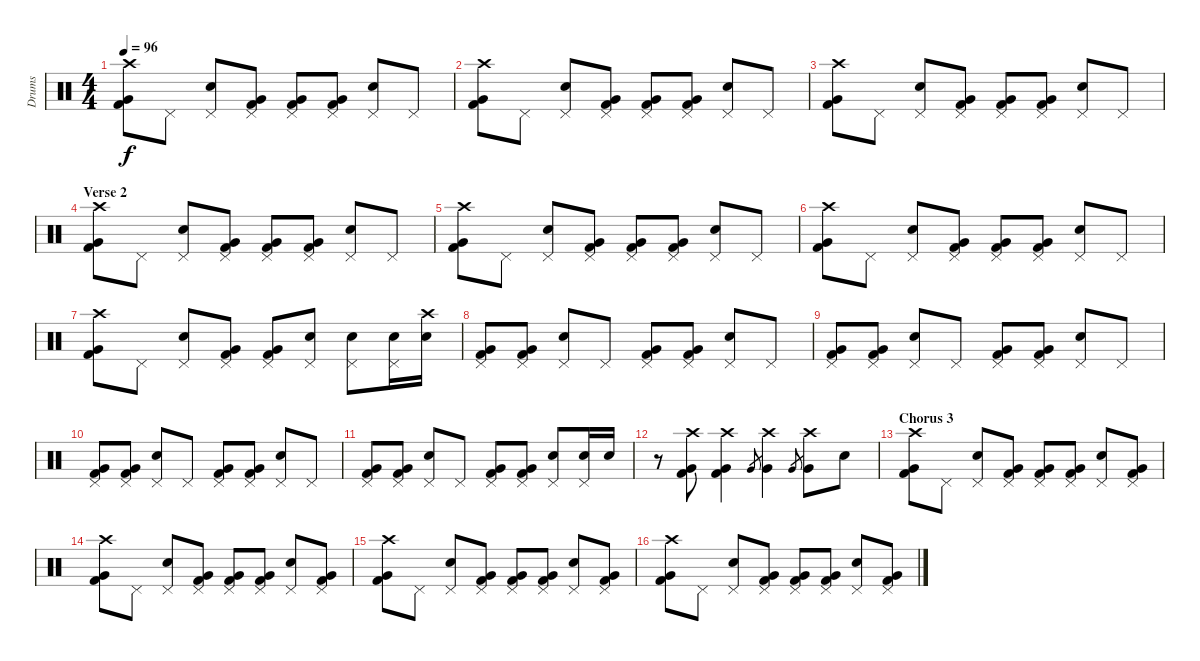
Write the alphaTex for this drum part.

\track ("Drums" "Drums") {instrument percussion}
\staff {score}
\articulation defaults
\ts (4 4)
\tempo 96
\clef neutral
\ks c
("Crash high (hit)" "Very Low Tom (hit)" "Kick (hit) 2").8{dy f} "Pedal Hi-Hat (hit)".8 ("Pedal Hi-Hat (hit)" "Electric Snare (hit)").8 ("Pedal Hi-Hat (hit)" "Very Low Tom (hit)" "Kick (hit) 2").8 ("Pedal Hi-Hat (hit)" "Very Low Tom (hit)" "Kick (hit) 2").8 ("Pedal Hi-Hat (hit)" "Very Low Tom (hit)" "Kick (hit) 2").8 ("Pedal Hi-Hat (hit)" "Electric Snare (hit)").8 "Pedal Hi-Hat (hit)".8 |
("Crash high (hit)" "Very Low Tom (hit)" "Kick (hit) 2").8 "Pedal Hi-Hat (hit)".8 ("Pedal Hi-Hat (hit)" "Electric Snare (hit)").8 ("Pedal Hi-Hat (hit)" "Very Low Tom (hit)" "Kick (hit) 2").8 ("Pedal Hi-Hat (hit)" "Very Low Tom (hit)" "Kick (hit) 2").8 ("Pedal Hi-Hat (hit)" "Very Low Tom (hit)" "Kick (hit) 2").8 ("Pedal Hi-Hat (hit)" "Electric Snare (hit)").8 "Pedal Hi-Hat (hit)".8 |
("Crash high (hit)" "Very Low Tom (hit)" "Kick (hit) 2").8 "Pedal Hi-Hat (hit)".8 ("Pedal Hi-Hat (hit)" "Electric Snare (hit)").8 ("Pedal Hi-Hat (hit)" "Very Low Tom (hit)" "Kick (hit) 2").8 ("Pedal Hi-Hat (hit)" "Very Low Tom (hit)" "Kick (hit) 2").8 ("Pedal Hi-Hat (hit)" "Very Low Tom (hit)" "Kick (hit) 2").8 ("Pedal Hi-Hat (hit)" "Electric Snare (hit)").8 "Pedal Hi-Hat (hit)".8 |
\section ("" "Verse 2")
("Crash high (hit)" "Very Low Tom (hit)" "Kick (hit) 2").8 "Pedal Hi-Hat (hit)".8 ("Pedal Hi-Hat (hit)" "Electric Snare (hit)").8 ("Pedal Hi-Hat (hit)" "Very Low Tom (hit)" "Kick (hit) 2").8 ("Pedal Hi-Hat (hit)" "Very Low Tom (hit)" "Kick (hit) 2").8 ("Pedal Hi-Hat (hit)" "Very Low Tom (hit)" "Kick (hit) 2").8 ("Pedal Hi-Hat (hit)" "Electric Snare (hit)").8 "Pedal Hi-Hat (hit)".8 |
("Crash high (hit)" "Very Low Tom (hit)" "Kick (hit) 2").8 "Pedal Hi-Hat (hit)".8 ("Pedal Hi-Hat (hit)" "Electric Snare (hit)").8 ("Pedal Hi-Hat (hit)" "Very Low Tom (hit)" "Kick (hit) 2").8 ("Pedal Hi-Hat (hit)" "Very Low Tom (hit)" "Kick (hit) 2").8 ("Pedal Hi-Hat (hit)" "Very Low Tom (hit)" "Kick (hit) 2").8 ("Pedal Hi-Hat (hit)" "Electric Snare (hit)").8 "Pedal Hi-Hat (hit)".8 |
("Crash high (hit)" "Very Low Tom (hit)" "Kick (hit) 2").8 "Pedal Hi-Hat (hit)".8 ("Pedal Hi-Hat (hit)" "Electric Snare (hit)").8 ("Pedal Hi-Hat (hit)" "Very Low Tom (hit)" "Kick (hit) 2").8 ("Pedal Hi-Hat (hit)" "Very Low Tom (hit)" "Kick (hit) 2").8 ("Pedal Hi-Hat (hit)" "Very Low Tom (hit)" "Kick (hit) 2").8 ("Pedal Hi-Hat (hit)" "Electric Snare (hit)").8 "Pedal Hi-Hat (hit)".8 |
("Crash high (hit)" "Very Low Tom (hit)" "Kick (hit) 2").8 "Pedal Hi-Hat (hit)".8 ("Pedal Hi-Hat (hit)" "Electric Snare (hit)").8 ("Pedal Hi-Hat (hit)" "Very Low Tom (hit)" "Kick (hit) 2").8 ("Pedal Hi-Hat (hit)" "Very Low Tom (hit)" "Kick (hit) 2").8 ("Pedal Hi-Hat (hit)" "Electric Snare (hit)").8 ("Pedal Hi-Hat (hit)" "Electric Snare (hit)").8 ("Pedal Hi-Hat (hit)" "Electric Snare (hit)").16 ("Crash high (hit)" "Electric Snare (hit)").16 |
("Pedal Hi-Hat (hit)" "Very Low Tom (hit)" "Kick (hit) 2").8 ("Pedal Hi-Hat (hit)" "Very Low Tom (hit)" "Kick (hit) 2").8 ("Pedal Hi-Hat (hit)" "Electric Snare (hit)").8 "Pedal Hi-Hat (hit)".8 ("Pedal Hi-Hat (hit)" "Very Low Tom (hit)" "Kick (hit) 2").8 ("Pedal Hi-Hat (hit)" "Very Low Tom (hit)" "Kick (hit) 2").8 ("Pedal Hi-Hat (hit)" "Electric Snare (hit)").8 "Pedal Hi-Hat (hit)".8 |
("Pedal Hi-Hat (hit)" "Very Low Tom (hit)" "Kick (hit) 2").8 ("Pedal Hi-Hat (hit)" "Very Low Tom (hit)" "Kick (hit) 2").8 ("Pedal Hi-Hat (hit)" "Electric Snare (hit)").8 "Pedal Hi-Hat (hit)".8 ("Pedal Hi-Hat (hit)" "Very Low Tom (hit)" "Kick (hit) 2").8 ("Pedal Hi-Hat (hit)" "Very Low Tom (hit)" "Kick (hit) 2").8 ("Pedal Hi-Hat (hit)" "Electric Snare (hit)").8 "Pedal Hi-Hat (hit)".8 |
("Pedal Hi-Hat (hit)" "Very Low Tom (hit)" "Kick (hit) 2").8 ("Pedal Hi-Hat (hit)" "Very Low Tom (hit)" "Kick (hit) 2").8 ("Pedal Hi-Hat (hit)" "Electric Snare (hit)").8 "Pedal Hi-Hat (hit)".8 ("Pedal Hi-Hat (hit)" "Very Low Tom (hit)" "Kick (hit) 2").8 ("Pedal Hi-Hat (hit)" "Very Low Tom (hit)" "Kick (hit) 2").8 ("Pedal Hi-Hat (hit)" "Electric Snare (hit)").8 "Pedal Hi-Hat (hit)".8 |
("Pedal Hi-Hat (hit)" "Very Low Tom (hit)" "Kick (hit) 2").8 ("Pedal Hi-Hat (hit)" "Very Low Tom (hit)" "Kick (hit) 2").8 ("Pedal Hi-Hat (hit)" "Electric Snare (hit)").8 "Pedal Hi-Hat (hit)".8 ("Pedal Hi-Hat (hit)" "Very Low Tom (hit)" "Kick (hit) 2").8 ("Pedal Hi-Hat (hit)" "Very Low Tom (hit)" "Kick (hit) 2").8 ("Pedal Hi-Hat (hit)" "Electric Snare (hit)").8 ("Pedal Hi-Hat (hit)" "Electric Snare (hit)").16 "Electric Snare (hit)".16 |
r.8 ("Crash high (hit)" "Very Low Tom (hit)" "Kick (hit) 2").8 ("Crash high (hit)" "Very Low Tom (hit)" "Kick (hit) 2").4 "Very Low Tom (hit)".8{gr} ("Crash high (hit)" "Very Low Tom (hit)").4 "Very Low Tom (hit)".8{gr} ("Crash high (hit)" "Very Low Tom (hit)").8 "Electric Snare (hit)".8 |
\section ("" "Chorus 3")
("Crash high (hit)" "Very Low Tom (hit)" "Kick (hit) 2").8 "Pedal Hi-Hat (hit)".8 ("Pedal Hi-Hat (hit)" "Electric Snare (hit)").8 ("Pedal Hi-Hat (hit)" "Very Low Tom (hit)" "Kick (hit) 2").8 ("Pedal Hi-Hat (hit)" "Very Low Tom (hit)" "Kick (hit) 2").8 ("Pedal Hi-Hat (hit)" "Very Low Tom (hit)" "Kick (hit) 2").8 ("Pedal Hi-Hat (hit)" "Electric Snare (hit)").8 ("Pedal Hi-Hat (hit)" "Very Low Tom (hit)" "Kick (hit) 2").8 |
("Crash high (hit)" "Very Low Tom (hit)" "Kick (hit) 2").8 "Pedal Hi-Hat (hit)".8 ("Pedal Hi-Hat (hit)" "Electric Snare (hit)").8 ("Pedal Hi-Hat (hit)" "Very Low Tom (hit)" "Kick (hit) 2").8 ("Pedal Hi-Hat (hit)" "Very Low Tom (hit)" "Kick (hit) 2").8 ("Pedal Hi-Hat (hit)" "Very Low Tom (hit)" "Kick (hit) 2").8 ("Pedal Hi-Hat (hit)" "Electric Snare (hit)").8 ("Pedal Hi-Hat (hit)" "Very Low Tom (hit)" "Kick (hit) 2").8 |
("Crash high (hit)" "Very Low Tom (hit)" "Kick (hit) 2").8 "Pedal Hi-Hat (hit)".8 ("Pedal Hi-Hat (hit)" "Electric Snare (hit)").8 ("Pedal Hi-Hat (hit)" "Very Low Tom (hit)" "Kick (hit) 2").8 ("Pedal Hi-Hat (hit)" "Very Low Tom (hit)" "Kick (hit) 2").8 ("Pedal Hi-Hat (hit)" "Very Low Tom (hit)" "Kick (hit) 2").8 ("Pedal Hi-Hat (hit)" "Electric Snare (hit)").8 ("Pedal Hi-Hat (hit)" "Very Low Tom (hit)" "Kick (hit) 2").8 |
("Crash high (hit)" "Very Low Tom (hit)" "Kick (hit) 2").8 "Pedal Hi-Hat (hit)".8 ("Pedal Hi-Hat (hit)" "Electric Snare (hit)").8 ("Pedal Hi-Hat (hit)" "Very Low Tom (hit)" "Kick (hit) 2").8 ("Pedal Hi-Hat (hit)" "Very Low Tom (hit)" "Kick (hit) 2").8 ("Pedal Hi-Hat (hit)" "Very Low Tom (hit)" "Kick (hit) 2").8 ("Pedal Hi-Hat (hit)" "Electric Snare (hit)").8 ("Pedal Hi-Hat (hit)" "Very Low Tom (hit)" "Kick (hit) 2").8
